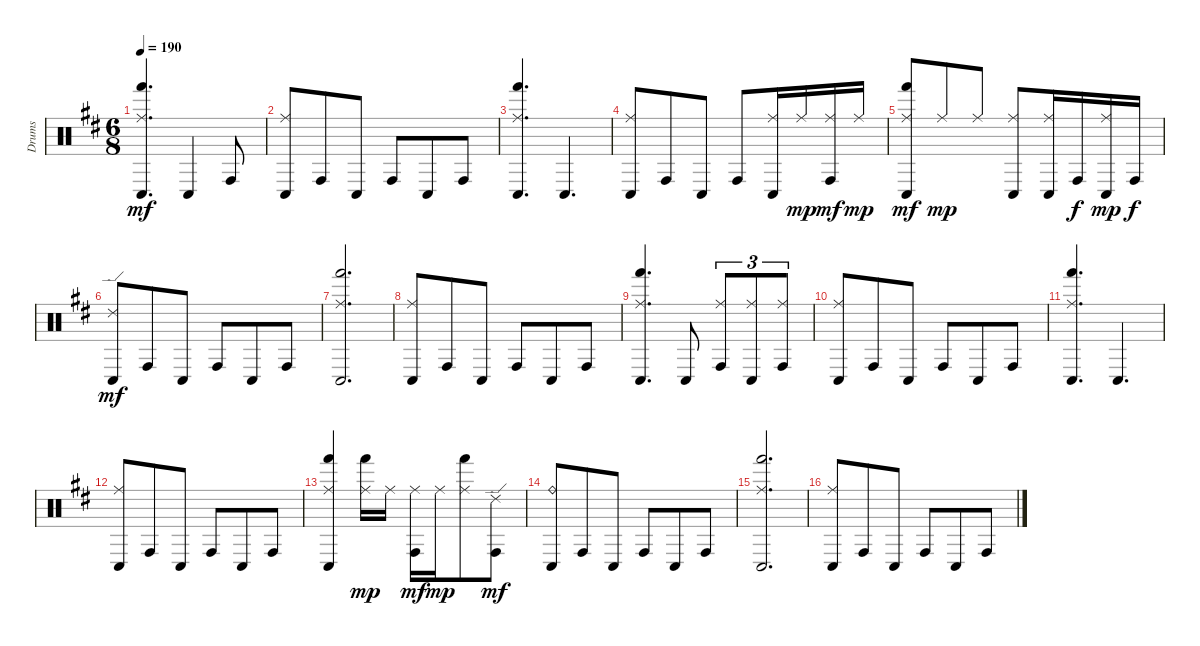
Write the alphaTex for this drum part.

\track ("Drums" "Drums") {instrument percussion}
\staff {score}
\articulation defaults
\ts (6 8)
\tempo 190
\clef neutral
\ks bminor
("Ride (middle)" "Hand (hit)" "Conga low (hit)").4{d dy mf} "Conga low (hit)".4 "Conga high (hit)".8 |
("Ride (middle)" "Conga low (hit)").8 "Conga high (hit)".8 "Conga low (hit)".8 "Conga high (hit)".8 "Conga low (hit)".8 "Conga high (hit)".8 |
("Ride (middle)" "Hand (hit)" "Conga low (hit)").4{d} "Conga low (hit)".4{d} |
("Ride (middle)" "Conga low (hit)").8 "Conga high (hit)".8 "Conga low (hit)".8 "Conga high (hit)".8 ("Ride (middle)" "Conga low (hit)").16 "Ride (middle)".16{dy mp} ("Ride (middle)" "Conga high (hit)").16{dy mf} "Ride (middle)".16{dy mp} |
("Ride (middle)" "Hand (hit)" "Conga low (hit)").8{dy mf} "Ride (middle)".8{dy mp} "Ride (middle)".8 ("Ride (middle)" "Conga low (hit)").8 ("Ride (middle)" "Conga low (hit)").16 "Conga high (hit)".16{dy f} ("Ride (middle)" "Conga low (hit)").16{dy mp} "Conga high (hit)".16{dy f} |
("Ride (edge) 2" "Conga low (hit)").8{dy mf} "Conga high (hit)".8 "Conga low (hit)".8 "Conga high (hit)".8 "Conga low (hit)".8 "Conga high (hit)".8 |
("Ride (middle)" "Hand (hit)" "Conga low (hit)").2{d} |
("Ride (middle)" "Conga low (hit)").8 "Conga high (hit)".8 "Conga low (hit)".8 "Conga high (hit)".8 "Conga low (hit)".8 "Conga high (hit)".8 |
("Ride (middle)" "Hand (hit)" "Conga low (hit)").4{d} "Conga low (hit)".8 ("Ride (middle)" "Conga high (hit)").8{tu (3 2)} ("Ride (middle)" "Conga low (hit)").8{tu (3 2)} ("Ride (middle)" "Conga high (hit)").8{tu (3 2)} |
("Ride (middle)" "Conga low (hit)").8 "Conga high (hit)".8 "Conga low (hit)".8 "Conga high (hit)".8 "Conga low (hit)".8 "Conga high (hit)".8 |
("Ride (middle)" "Hand (hit)" "Conga low (hit)").4{d} "Conga low (hit)".4{d} |
("Ride (middle)" "Conga low (hit)").8 "Conga high (hit)".8 "Conga low (hit)".8 "Conga high (hit)".8 "Conga low (hit)".8 "Conga high (hit)".8 |
("Ride (middle)" "Hand (hit)" "Conga low (hit)").4 ("Ride (middle)" "Hand (hit)").16{dy mp} "Ride (middle)".16 ("Ride (middle)" "Conga high (hit)").16{dy mf} "Ride (middle)".16{dy mp} ("Ride (middle)" "Hand (hit)").8 ("Ride (edge) 2" "Conga high (hit)").8{dy mf} |
("Ride (bell)" "Conga low (hit)").8 "Conga high (hit)".8 "Conga low (hit)".8 "Conga high (hit)".8 "Conga low (hit)".8 "Conga high (hit)".8 |
("Ride (middle)" "Hand (hit)" "Conga low (hit)").2{d} |
("Ride (middle)" "Conga low (hit)").8 "Conga high (hit)".8 "Conga low (hit)".8 "Conga high (hit)".8 "Conga low (hit)".8 "Conga high (hit)".8
